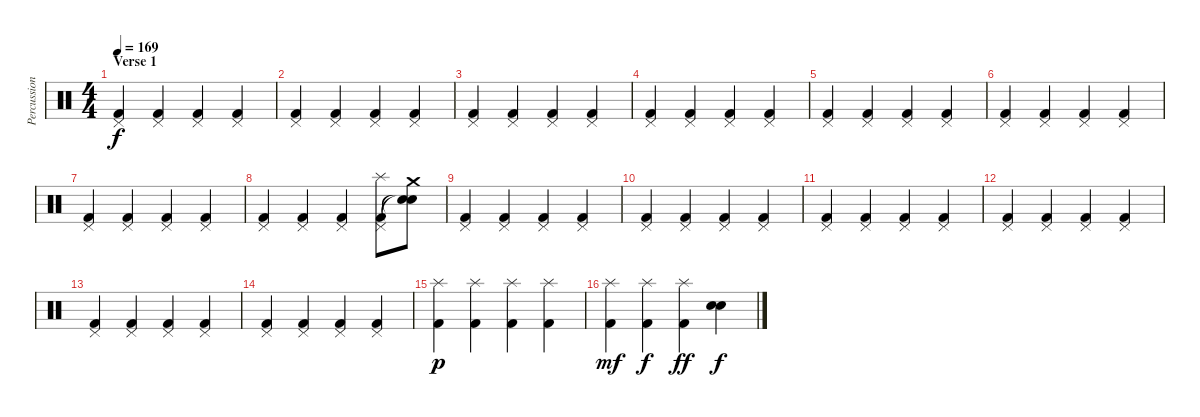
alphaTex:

\track ("Percussion" "Percussion") {instrument percussion}
\staff {score}
\articulation defaults
\ts (4 4)
\section ("" "Verse 1")
\tempo 169
\clef neutral
\ks c
("Kick (hit) 2" "Pedal Hi-Hat (hit)").4{dy f} ("Kick (hit) 2" "Pedal Hi-Hat (hit)").4 ("Kick (hit) 2" "Pedal Hi-Hat (hit)").4 ("Kick (hit) 2" "Pedal Hi-Hat (hit)").4 |
("Kick (hit) 2" "Pedal Hi-Hat (hit)").4 ("Kick (hit) 2" "Pedal Hi-Hat (hit)").4 ("Kick (hit) 2" "Pedal Hi-Hat (hit)").4 ("Kick (hit) 2" "Pedal Hi-Hat (hit)").4 |
("Kick (hit) 2" "Pedal Hi-Hat (hit)").4 ("Kick (hit) 2" "Pedal Hi-Hat (hit)").4 ("Kick (hit) 2" "Pedal Hi-Hat (hit)").4 ("Kick (hit) 2" "Pedal Hi-Hat (hit)").4 |
("Kick (hit) 2" "Pedal Hi-Hat (hit)").4 ("Kick (hit) 2" "Pedal Hi-Hat (hit)").4 ("Kick (hit) 2" "Pedal Hi-Hat (hit)").4 ("Kick (hit) 2" "Pedal Hi-Hat (hit)").4 |
("Kick (hit) 2" "Pedal Hi-Hat (hit)").4 ("Kick (hit) 2" "Pedal Hi-Hat (hit)").4 ("Kick (hit) 2" "Pedal Hi-Hat (hit)").4 ("Kick (hit) 2" "Pedal Hi-Hat (hit)").4 |
("Kick (hit) 2" "Pedal Hi-Hat (hit)").4 ("Kick (hit) 2" "Pedal Hi-Hat (hit)").4 ("Kick (hit) 2" "Pedal Hi-Hat (hit)").4 ("Kick (hit) 2" "Pedal Hi-Hat (hit)").4 |
("Kick (hit) 2" "Pedal Hi-Hat (hit)").4 ("Kick (hit) 2" "Pedal Hi-Hat (hit)").4 ("Kick (hit) 2" "Pedal Hi-Hat (hit)").4 ("Kick (hit) 2" "Pedal Hi-Hat (hit)").4 |
("Kick (hit) 2" "Pedal Hi-Hat (hit)").4 ("Kick (hit) 2" "Pedal Hi-Hat (hit)").4 ("Kick (hit) 2" "Pedal Hi-Hat (hit)").4 ("Kick (hit) 2" "Pedal Hi-Hat (hit)" "Splash (hit)").8 ("Snare (hit)"{t} "Snare (hit)"{t} "Crash medium (hit)").8 |
("Kick (hit) 2" "Pedal Hi-Hat (hit)").4 ("Kick (hit) 2" "Pedal Hi-Hat (hit)").4 ("Kick (hit) 2" "Pedal Hi-Hat (hit)").4 ("Kick (hit) 2" "Pedal Hi-Hat (hit)").4 |
("Kick (hit) 2" "Pedal Hi-Hat (hit)").4 ("Kick (hit) 2" "Pedal Hi-Hat (hit)").4 ("Kick (hit) 2" "Pedal Hi-Hat (hit)").4 ("Kick (hit) 2" "Pedal Hi-Hat (hit)").4 |
("Kick (hit) 2" "Pedal Hi-Hat (hit)").4 ("Kick (hit) 2" "Pedal Hi-Hat (hit)").4 ("Kick (hit) 2" "Pedal Hi-Hat (hit)").4 ("Kick (hit) 2" "Pedal Hi-Hat (hit)").4 |
("Kick (hit) 2" "Pedal Hi-Hat (hit)").4 ("Kick (hit) 2" "Pedal Hi-Hat (hit)").4 ("Kick (hit) 2" "Pedal Hi-Hat (hit)").4 ("Kick (hit) 2" "Pedal Hi-Hat (hit)").4 |
("Kick (hit) 2" "Pedal Hi-Hat (hit)").4 ("Kick (hit) 2" "Pedal Hi-Hat (hit)").4 ("Kick (hit) 2" "Pedal Hi-Hat (hit)").4 ("Kick (hit) 2" "Pedal Hi-Hat (hit)").4 |
("Kick (hit) 2" "Pedal Hi-Hat (hit)").4 ("Kick (hit) 2" "Pedal Hi-Hat (hit)").4 ("Kick (hit) 2" "Pedal Hi-Hat (hit)").4 ("Kick (hit) 2" "Pedal Hi-Hat (hit)").4 |
("Kick (hit) 2" "Splash (hit)").4{dy p} ("Kick (hit) 2" "Splash (hit)").4 ("Kick (hit) 2" "Splash (hit)").4 ("Kick (hit) 2" "Splash (hit)").4 |
("Kick (hit) 2" "Splash (hit)").4{dy mf} ("Kick (hit) 2" "Splash (hit)").4{dy f} ("Kick (hit) 2" "Splash (hit)").4{dy ff} ("Snare (hit) 2" "Snare (hit) 2").4{dy f}
